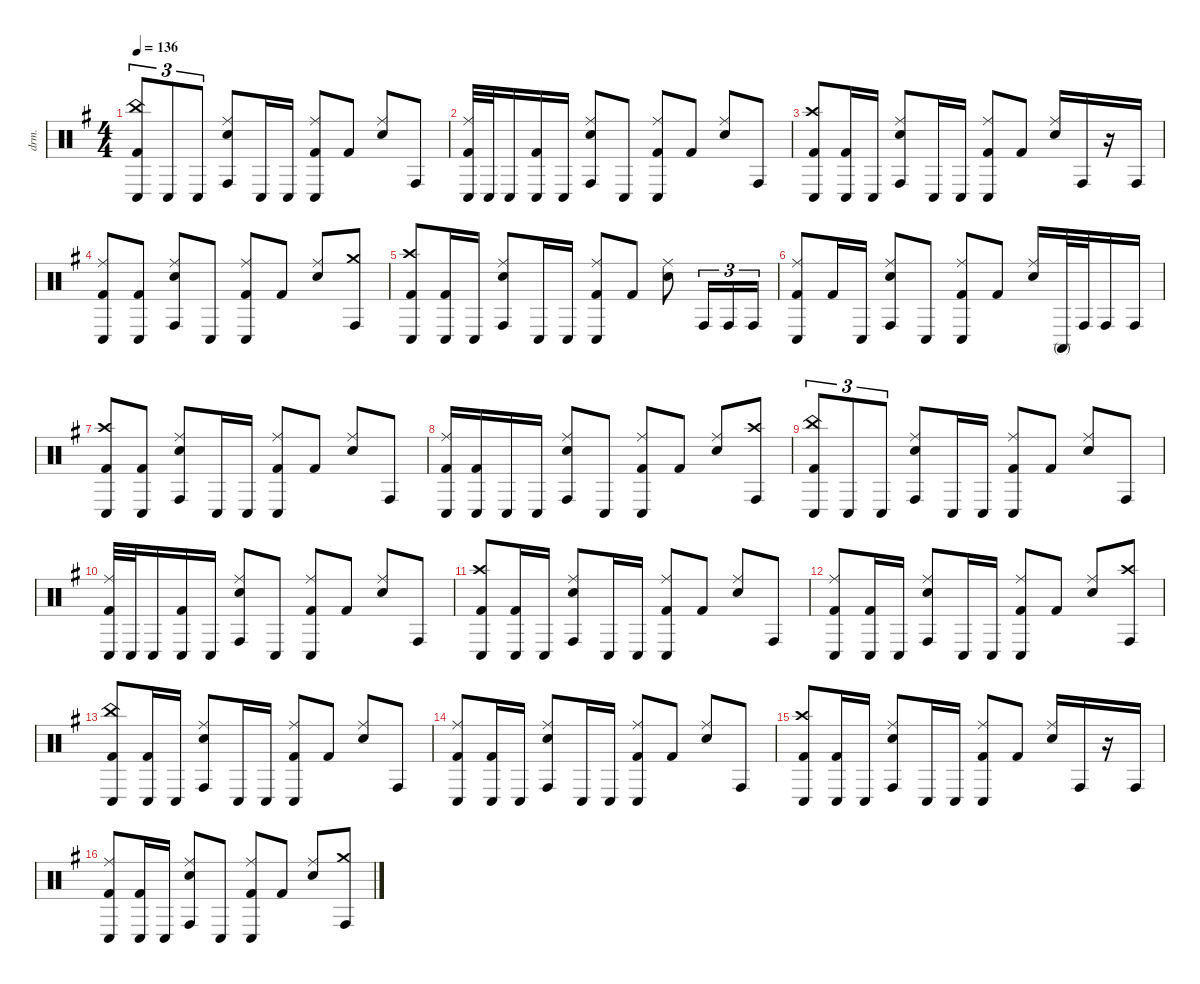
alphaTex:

\defaultSystemsLayout 4
\hideDynamics
\bracketExtendMode nobrackets
\otherSystemsTrackNameOrientation horizontal
\track ("Batterie" "drm.") {instrument percussion}
\staff {score}
\articulation defaults
\ts (4 4)
\tempo 136
\clef neutral
\ks g
("China (hit)"{acc forcenatural} "Conga low (hit)"{acc forcenatural} "Kick (hit) 2"{acc forcenatural}).8{tu (3 2) dy f beam Up} "Conga low (hit)"{acc forcenatural}.8{tu (3 2) beam Up} "Conga low (hit)"{acc forcenatural}.8{tu (3 2) beam Up} ("Ride (middle)"{acc forcenatural} "Conga high (hit)"{acc forcenatural} "Snare (hit) 2"{acc forcenatural}).8{beam Up} "Conga low (hit)"{acc forcenatural}.16{beam Up} "Conga low (hit)"{acc forcenatural}.16{beam Up} ("Ride (middle)"{acc forcenatural} "Conga low (hit)"{acc forcenatural} "Kick (hit) 2"{acc forcenatural}).8{beam Up} "Kick (hit) 2"{acc forcenatural}.8{beam Up} ("Ride (middle)"{acc forcenatural} "Snare (hit) 2"{acc forcenatural}).8{beam Up} "Conga high (hit)"{acc forcenatural}.8{beam Up} |
("Ride (middle)"{acc forcenatural} "Conga low (hit)"{acc forcenatural} "Kick (hit) 2"{acc forcenatural}).32{beam Up} "Conga low (hit)"{acc forcenatural}.32{beam Up} "Conga low (hit)"{acc forcenatural}.16{beam Up} ("Conga low (hit)"{acc forcenatural} "Kick (hit) 2"{acc forcenatural}).16{beam Up} "Conga low (hit)"{acc forcenatural}.16{beam Up} ("Ride (middle)"{acc forcenatural} "Conga high (hit)"{acc forcenatural} "Snare (hit) 2"{acc forcenatural}).8{beam Up} "Conga low (hit)"{acc forcenatural}.8{beam Up} ("Ride (middle)"{acc forcenatural} "Conga low (hit)"{acc forcenatural} "Kick (hit) 2"{acc forcenatural}).8{beam Up} "Kick (hit) 2"{acc forcenatural}.8{beam Up} ("Ride (middle)"{acc forcenatural} "Snare (hit) 2"{acc forcenatural}).8{beam Up} "Conga high (hit)"{acc forcenatural}.8{beam Up} |
("Crash high (hit)"{acc forcenatural} "Conga low (hit)"{acc forcenatural} "Kick (hit) 2"{acc forcenatural}).8{beam Up} ("Conga low (hit)"{acc forcenatural} "Kick (hit) 2"{acc forcenatural}).16{beam Up} "Conga low (hit)"{acc forcenatural}.16{beam Up} ("Ride (middle)"{acc forcenatural} "Conga high (hit)"{acc forcenatural} "Snare (hit) 2"{acc forcenatural}).8{beam Up} "Conga low (hit)"{acc forcenatural}.16{beam Up} "Conga low (hit)"{acc forcenatural}.16{beam Up} ("Ride (middle)"{acc forcenatural} "Conga low (hit)"{acc forcenatural} "Kick (hit) 2"{acc forcenatural}).8{beam Up} "Kick (hit) 2"{acc forcenatural}.8{beam Up} ("Ride (middle)"{acc forcenatural} "Snare (hit) 2"{acc forcenatural}).16{beam Up} "Conga high (hit)"{acc forcenatural}.16{beam Up} r.16{beam Up} "Conga high (hit)"{acc forcenatural}.16{beam Up} |
("Ride (middle)"{acc forcenatural} "Conga low (hit)"{acc forcenatural} "Kick (hit) 2"{acc forcenatural}).8{beam Up} ("Conga low (hit)"{acc forcenatural} "Kick (hit) 2"{acc forcenatural}).8{beam Up} ("Ride (middle)"{acc forcenatural} "Conga high (hit)"{acc forcenatural} "Snare (hit) 2"{acc forcenatural}).8{beam Up} "Conga low (hit)"{acc forcenatural}.8{beam Up} ("Ride (middle)"{acc forcenatural} "Conga low (hit)"{acc forcenatural} "Kick (hit) 2"{acc forcenatural}).8{beam Up} "Kick (hit) 2"{acc forcenatural}.8{beam Up} ("Ride (middle)"{acc forcenatural} "Snare (hit) 2"{acc forcenatural}).8{beam Up} ("Crash medium (hit)"{acc forcenatural} "Conga high (hit)"{acc forcenatural}).8{beam Up} |
("Crash high (hit)"{acc forcenatural} "Conga low (hit)"{acc forcenatural} "Kick (hit) 2"{acc forcenatural}).8{beam Up} ("Conga low (hit)"{acc forcenatural} "Kick (hit) 2"{acc forcenatural}).16{beam Up} "Conga low (hit)"{acc forcenatural}.16{beam Up} ("Ride (middle)"{acc forcenatural} "Conga high (hit)"{acc forcenatural} "Snare (hit) 2"{acc forcenatural}).8{beam Up} "Conga low (hit)"{acc forcenatural}.16{beam Up} "Conga low (hit)"{acc forcenatural}.16{beam Up} ("Ride (middle)"{acc forcenatural} "Conga low (hit)"{acc forcenatural} "Kick (hit) 2"{acc forcenatural}).8{beam Up} "Kick (hit) 2"{acc forcenatural}.8{beam Up} ("Ride (middle)"{acc forcenatural} "Snare (hit) 2"{acc forcenatural}).8{beam Down} "Conga high (hit)"{acc forcenatural}.16{tu (3 2) beam Up} "Conga high (hit)"{acc forcenatural}.16{tu (3 2) beam Up} "Conga high (hit)"{acc forcenatural}.16{tu (3 2) beam Up} |
("Ride (middle)"{acc forcenatural} "Conga low (hit)"{acc forcenatural} "Kick (hit) 2"{acc forcenatural}).8{beam Up} "Kick (hit) 2"{acc forcenatural}.16{beam Up} "Conga low (hit)"{acc forcenatural}.16{beam Up} ("Ride (middle)"{acc forcenatural} "Conga high (hit)"{acc forcenatural} "Snare (hit) 2"{acc forcenatural}).8{beam Up} "Conga low (hit)"{acc forcenatural}.8{beam Up} ("Ride (middle)"{acc forcenatural} "Conga low (hit)"{acc forcenatural} "Kick (hit) 2"{acc forcenatural}).8{beam Up} "Kick (hit) 2"{acc forcenatural}.8{beam Up} ("Ride (middle)"{acc forcenatural} "Snare (hit) 2"{acc forcenatural}).16{beam Up} "Conga high (mute)"{acc forcenatural}.32{beam Up} "Conga high (hit)"{acc forcenatural}.32{beam Up} "Conga high (hit)"{acc forcenatural}.16{beam Up} "Conga high (hit)"{acc forcenatural}.16{beam Up} |
("Crash high (hit)"{acc forcenatural} "Conga low (hit)"{acc forcenatural} "Kick (hit) 2"{acc forcenatural}).8{beam Up} ("Conga low (hit)"{acc forcenatural} "Kick (hit) 2"{acc forcenatural}).8{beam Up} ("Ride (middle)"{acc forcenatural} "Conga high (hit)"{acc forcenatural} "Snare (hit) 2"{acc forcenatural}).8{beam Up} "Conga low (hit)"{acc forcenatural}.16{beam Up} "Conga low (hit)"{acc forcenatural}.16{beam Up} ("Ride (middle)"{acc forcenatural} "Conga low (hit)"{acc forcenatural} "Kick (hit) 2"{acc forcenatural}).8{beam Up} "Kick (hit) 2"{acc forcenatural}.8{beam Up} ("Ride (middle)"{acc forcenatural} "Snare (hit) 2"{acc forcenatural}).8{beam Up} "Conga high (hit)"{acc forcenatural}.8{beam Up} |
("Ride (middle)"{acc forcenatural} "Conga low (hit)"{acc forcenatural} "Kick (hit) 2"{acc forcenatural}).16{beam Up} ("Conga low (hit)"{acc forcenatural} "Kick (hit) 2"{acc forcenatural}).16{beam Up} "Conga low (hit)"{acc forcenatural}.16{beam Up} "Conga low (hit)"{acc forcenatural}.16{beam Up} ("Ride (middle)"{acc forcenatural} "Conga high (hit)"{acc forcenatural} "Snare (hit) 2"{acc forcenatural}).8{beam Up} "Conga low (hit)"{acc forcenatural}.8{beam Up} ("Ride (middle)"{acc forcenatural} "Conga low (hit)"{acc forcenatural} "Kick (hit) 2"{acc forcenatural}).8{beam Up} "Kick (hit) 2"{acc forcenatural}.8{beam Up} ("Ride (middle)"{acc forcenatural} "Snare (hit) 2"{acc forcenatural}).8{beam Up} ("Crash high (hit)"{acc forcenatural} "Conga high (hit)"{acc forcenatural}).8{beam Up} |
("China (hit)"{acc forcenatural} "Conga low (hit)"{acc forcenatural} "Kick (hit) 2"{acc forcenatural}).8{tu (3 2) beam Up} "Conga low (hit)"{acc forcenatural}.8{tu (3 2) beam Up} "Conga low (hit)"{acc forcenatural}.8{tu (3 2) beam Up} ("Ride (middle)"{acc forcenatural} "Conga high (hit)"{acc forcenatural} "Snare (hit) 2"{acc forcenatural}).8{beam Up} "Conga low (hit)"{acc forcenatural}.16{beam Up} "Conga low (hit)"{acc forcenatural}.16{beam Up} ("Ride (middle)"{acc forcenatural} "Conga low (hit)"{acc forcenatural} "Kick (hit) 2"{acc forcenatural}).8{beam Up} "Kick (hit) 2"{acc forcenatural}.8{beam Up} ("Ride (middle)"{acc forcenatural} "Snare (hit) 2"{acc forcenatural}).8{beam Up} "Conga high (hit)"{acc forcenatural}.8{beam Up} |
("Ride (middle)"{acc forcenatural} "Conga low (hit)"{acc forcenatural} "Kick (hit) 2"{acc forcenatural}).32{beam Up} "Conga low (hit)"{acc forcenatural}.32{beam Up} "Conga low (hit)"{acc forcenatural}.16{beam Up} ("Conga low (hit)"{acc forcenatural} "Kick (hit) 2"{acc forcenatural}).16{beam Up} "Conga low (hit)"{acc forcenatural}.16{beam Up} ("Ride (middle)"{acc forcenatural} "Conga high (hit)"{acc forcenatural} "Snare (hit) 2"{acc forcenatural}).8{beam Up} "Conga low (hit)"{acc forcenatural}.8{beam Up} ("Ride (middle)"{acc forcenatural} "Conga low (hit)"{acc forcenatural} "Kick (hit) 2"{acc forcenatural}).8{beam Up} "Kick (hit) 2"{acc forcenatural}.8{beam Up} ("Ride (middle)"{acc forcenatural} "Snare (hit) 2"{acc forcenatural}).8{beam Up} "Conga high (hit)"{acc forcenatural}.8{beam Up} |
("Crash high (hit)"{acc forcenatural} "Conga low (hit)"{acc forcenatural} "Kick (hit) 2"{acc forcenatural}).8{beam Up} ("Conga low (hit)"{acc forcenatural} "Kick (hit) 2"{acc forcenatural}).16{beam Up} "Conga low (hit)"{acc forcenatural}.16{beam Up} ("Ride (middle)"{acc forcenatural} "Conga high (hit)"{acc forcenatural} "Snare (hit) 2"{acc forcenatural}).8{beam Up} "Conga low (hit)"{acc forcenatural}.16{beam Up} "Conga low (hit)"{acc forcenatural}.16{beam Up} ("Ride (middle)"{acc forcenatural} "Conga low (hit)"{acc forcenatural} "Kick (hit) 2"{acc forcenatural}).8{beam Up} "Kick (hit) 2"{acc forcenatural}.8{beam Up} ("Ride (middle)"{acc forcenatural} "Snare (hit) 2"{acc forcenatural}).8{beam Up} "Conga high (hit)"{acc forcenatural}.8{beam Up} |
("Ride (middle)"{acc forcenatural} "Conga low (hit)"{acc forcenatural} "Kick (hit) 2"{acc forcenatural}).8{beam Up} ("Conga low (hit)"{acc forcenatural} "Kick (hit) 2"{acc forcenatural}).16{beam Up} "Conga low (hit)"{acc forcenatural}.16{beam Up} ("Ride (middle)"{acc forcenatural} "Conga high (hit)"{acc forcenatural} "Snare (hit) 2"{acc forcenatural}).8{beam Up} "Conga low (hit)"{acc forcenatural}.16{beam Up} "Conga low (hit)"{acc forcenatural}.16{beam Up} ("Ride (middle)"{acc forcenatural} "Conga low (hit)"{acc forcenatural} "Kick (hit) 2"{acc forcenatural}).8{beam Up} "Kick (hit) 2"{acc forcenatural}.8{beam Up} ("Ride (middle)"{acc forcenatural} "Snare (hit) 2"{acc forcenatural}).8{beam Up} ("Crash high (hit)"{acc forcenatural} "Conga high (hit)"{acc forcenatural}).8{beam Up} |
("China (hit)"{acc forcenatural} "Conga low (hit)"{acc forcenatural} "Kick (hit) 2"{acc forcenatural}).8{beam Up} ("Conga low (hit)"{acc forcenatural} "Kick (hit) 2"{acc forcenatural}).16{beam Up} "Conga low (hit)"{acc forcenatural}.16{beam Up} ("Ride (middle)"{acc forcenatural} "Conga high (hit)"{acc forcenatural} "Snare (hit) 2"{acc forcenatural}).8{beam Up} "Conga low (hit)"{acc forcenatural}.16{beam Up} "Conga low (hit)"{acc forcenatural}.16{beam Up} ("Ride (middle)"{acc forcenatural} "Conga low (hit)"{acc forcenatural} "Kick (hit) 2"{acc forcenatural}).8{beam Up} "Kick (hit) 2"{acc forcenatural}.8{beam Up} ("Ride (middle)"{acc forcenatural} "Snare (hit) 2"{acc forcenatural}).8{beam Up} "Conga high (hit)"{acc forcenatural}.8{beam Up} |
("Ride (middle)"{acc forcenatural} "Conga low (hit)"{acc forcenatural} "Kick (hit) 2"{acc forcenatural}).8{beam Up} ("Conga low (hit)"{acc forcenatural} "Kick (hit) 2"{acc forcenatural}).16{beam Up} "Conga low (hit)"{acc forcenatural}.16{beam Up} ("Ride (middle)"{acc forcenatural} "Conga high (hit)"{acc forcenatural} "Snare (hit) 2"{acc forcenatural}).8{beam Up} "Conga low (hit)"{acc forcenatural}.16{beam Up} "Conga low (hit)"{acc forcenatural}.16{beam Up} ("Ride (middle)"{acc forcenatural} "Conga low (hit)"{acc forcenatural} "Kick (hit) 2"{acc forcenatural}).8{beam Up} "Kick (hit) 2"{acc forcenatural}.8{beam Up} ("Ride (middle)"{acc forcenatural} "Snare (hit) 2"{acc forcenatural}).8{beam Up} "Conga high (hit)"{acc forcenatural}.8{beam Up} |
("Crash high (hit)"{acc forcenatural} "Conga low (hit)"{acc forcenatural} "Kick (hit) 2"{acc forcenatural}).8{beam Up} ("Conga low (hit)"{acc forcenatural} "Kick (hit) 2"{acc forcenatural}).16{beam Up} "Conga low (hit)"{acc forcenatural}.16{beam Up} ("Ride (middle)"{acc forcenatural} "Conga high (hit)"{acc forcenatural} "Snare (hit) 2"{acc forcenatural}).8{beam Up} "Conga low (hit)"{acc forcenatural}.16{beam Up} "Conga low (hit)"{acc forcenatural}.16{beam Up} ("Ride (middle)"{acc forcenatural} "Conga low (hit)"{acc forcenatural} "Kick (hit) 2"{acc forcenatural}).8{beam Up} "Kick (hit) 2"{acc forcenatural}.8{beam Up} ("Ride (middle)"{acc forcenatural} "Snare (hit) 2"{acc forcenatural}).16{beam Up} "Conga high (hit)"{acc forcenatural}.16{beam Up} r.16{beam Up} "Conga high (hit)"{acc forcenatural}.16{beam Up} |
("Ride (middle)"{acc forcenatural} "Conga low (hit)"{acc forcenatural} "Kick (hit) 2"{acc forcenatural}).8{beam Up} ("Conga low (hit)"{acc forcenatural} "Kick (hit) 2"{acc forcenatural}).16{beam Up} "Conga low (hit)"{acc forcenatural}.16{beam Up} ("Ride (middle)"{acc forcenatural} "Conga high (hit)"{acc forcenatural} "Snare (hit) 2"{acc forcenatural}).8{beam Up} "Conga low (hit)"{acc forcenatural}.8{beam Up} ("Ride (middle)"{acc forcenatural} "Conga low (hit)"{acc forcenatural} "Kick (hit) 2"{acc forcenatural}).8{beam Up} "Kick (hit) 2"{acc forcenatural}.8{beam Up} ("Ride (middle)"{acc forcenatural} "Snare (hit) 2"{acc forcenatural}).8{beam Up} ("Crash medium (hit)"{acc forcenatural} "Conga high (hit)"{acc forcenatural}).8{beam Up}
